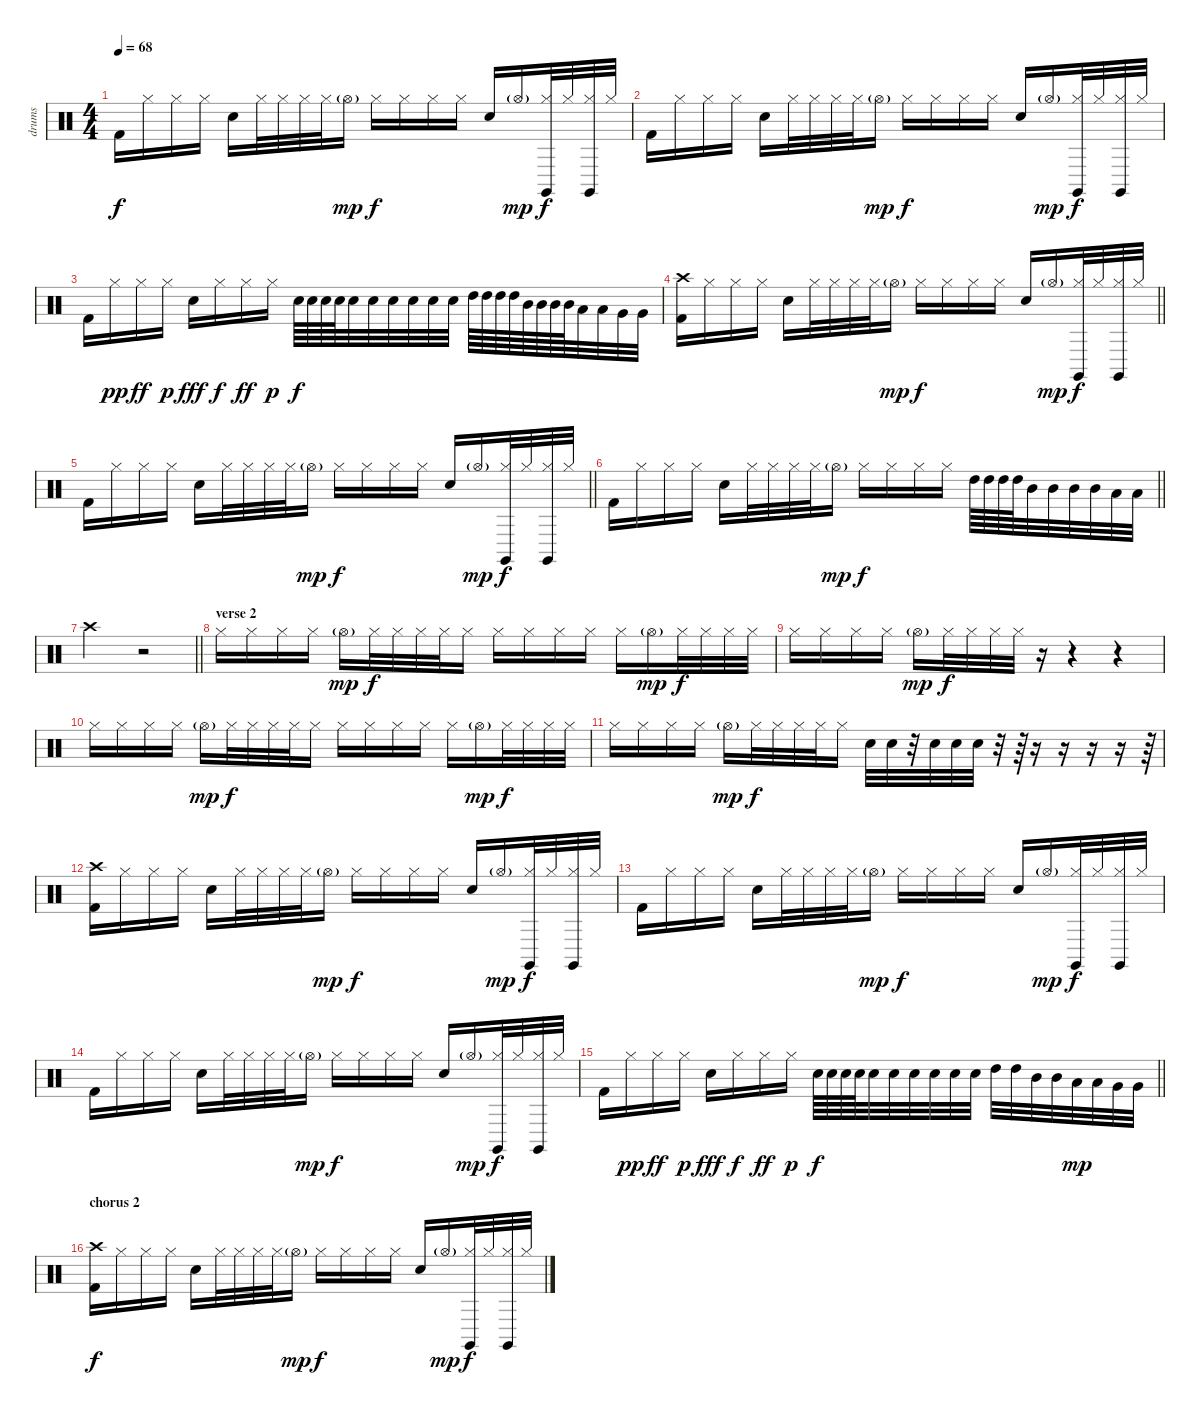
\track ("drums" "drums") {instrument percussion}
\staff {score}
\articulation defaults
\ts (4 4)
\tempo 68
\clef neutral
\ks c "Kick (hit) 2".16{dy f} "Hi-Hat (closed)".16 "Hi-Hat (closed)".16 "Hi-Hat (closed)".16 "Electric Snare (hit)".16 "Hi-Hat (closed)".32 "Hi-Hat (closed)".32 "Hi-Hat (closed)".32 "Hi-Hat (closed)".32 "Hi-Hat (open)"{g}.16{dy mp} "Hi-Hat (closed)".16{dy f} "Hi-Hat (closed)".16 "Hi-Hat (closed)".16 "Hi-Hat (closed)".16 "Electric Snare (hit)".16 "Hi-Hat (open)"{g}.16{dy mp}
("Hi-Hat (closed)" "Claves (hit)").32{dy f} "Hi-Hat (closed)".32 ("Hi-Hat (closed)" "Claves (hit)").32 "Hi-Hat (closed)".32 |
"Kick (hit) 2".16 "Hi-Hat (closed)".16 "Hi-Hat (closed)".16 "Hi-Hat (closed)".16 "Electric Snare (hit)".16 "Hi-Hat (closed)".32 "Hi-Hat (closed)".32 "Hi-Hat (closed)".32 "Hi-Hat (closed)".32 "Hi-Hat (open)"{g}.16{dy mp} "Hi-Hat (closed)".16{dy f} "Hi-Hat (closed)".16 "Hi-Hat (closed)".16 "Hi-Hat (closed)".16 "Electric Snare (hit)".16 "Hi-Hat (open)"{g}.16{dy mp} ("Hi-Hat (closed)" "Claves (hit)").32{dy f} "Hi-Hat (closed)".32 ("Hi-Hat (closed)" "Claves (hit)").32 "Hi-Hat (closed)".32 |
"Kick (hit) 2".16 "Hi-Hat (closed)".16{dy pp} "Hi-Hat (closed)".16{dy ff} "Hi-Hat (closed)".16{dy p} "Electric Snare (hit)".16{dy fff} "Hi-Hat (closed)".16{dy f} "Hi-Hat (closed)".16{dy ff} "Hi-Hat (closed)".16{dy p} "Electric Snare (hit)".64{dy f} "Electric Snare (hit)".64 "Electric Snare (hit)".64 "Electric Snare (hit)".64 "Electric Snare (hit)".32 "Electric Snare (hit)".32 "Electric Snare (hit)".32 "Electric Snare (hit)".32 "Electric Snare (hit)".32 "Electric Snare (hit)".32 "High Tom (hit)".64 "High Tom (hit)".64 "High Tom (hit)".64 "High Tom (hit)".64 "Mid Tom (hit)".64 "Mid Tom (hit)".64 "Mid Tom (hit)".64 "Mid Tom (hit)".64 "Low Tom (hit)".32 "Low Tom (hit)".32 "Very Low Tom (hit)".32 "Very Low Tom (hit)".32 |
\barLineRight lightlight
("Kick (hit) 2" "Crash high (hit)").16 "Hi-Hat (closed)".16 "Hi-Hat (closed)".16 "Hi-Hat (closed)".16 "Electric Snare (hit)".16 "Hi-Hat (closed)".32 "Hi-Hat (closed)".32 "Hi-Hat (closed)".32 "Hi-Hat (closed)".32 "Hi-Hat (open)"{g}.16{dy mp} "Hi-Hat (closed)".16{dy f} "Hi-Hat (closed)".16 "Hi-Hat (closed)".16 "Hi-Hat (closed)".16 "Electric Snare (hit)".16 "Hi-Hat (open)"{g}.16{dy mp} ("Hi-Hat (closed)" "Claves (hit)").32{dy f} "Hi-Hat (closed)".32 ("Hi-Hat (closed)" "Claves (hit)").32 "Hi-Hat (closed)".32 |
\barLineRight lightlight "Kick (hit) 2".16 "Hi-Hat (closed)".16 "Hi-Hat (closed)".16 "Hi-Hat (closed)".16 "Electric Snare (hit)".16 "Hi-Hat (closed)".32 "Hi-Hat (closed)".32 "Hi-Hat (closed)".32 "Hi-Hat (closed)".32 "Hi-Hat (open)"{g}.16{dy mp} "Hi-Hat (closed)".16{dy f} "Hi-Hat (closed)".16 "Hi-Hat (closed)".16 "Hi-Hat (closed)".16 "Electric Snare (hit)".16 "Hi-Hat (open)"{g}.16{dy mp}
("Hi-Hat (closed)" "Claves (hit)").32{dy f} "Hi-Hat (closed)".32 ("Hi-Hat (closed)" "Claves (hit)").32 "Hi-Hat (closed)".32 |
\barLineRight lightlight "Kick (hit) 2".16 "Hi-Hat (closed)".16 "Hi-Hat (closed)".16 "Hi-Hat (closed)".16 "Electric Snare (hit)".16 "Hi-Hat (closed)".32 "Hi-Hat (closed)".32 "Hi-Hat (closed)".32 "Hi-Hat (closed)".32 "Hi-Hat (open)"{g}.16{dy mp} "Hi-Hat (closed)".16{dy f} "Hi-Hat (closed)".16 "Hi-Hat (closed)".16 "Hi-Hat (closed)".16 "High Tom (hit)".64 "High Tom (hit)".64 "High Tom (hit)".64 "High Tom (hit)".64 "Mid Tom (hit)".32 "Mid Tom (hit)".32 "Mid Tom (hit)".32 "Mid Tom (hit)".32 "Low Tom (hit)".32 "Low Tom (hit)".32
|
\barLineRight lightlight "Crash high (hit)".2
r.2 |
\section ("" "verse 2")
"Hi-Hat (closed)".16 "Hi-Hat (closed)".16 "Hi-Hat (closed)".16 "Hi-Hat (closed)".16 "Hi-Hat (open)"{g}.16{dy mp} "Hi-Hat (closed)".32{dy f} "Hi-Hat (closed)".32 "Hi-Hat (closed)".32 "Hi-Hat (closed)".32 "Hi-Hat (closed)".16 "Hi-Hat (closed)".16 "Hi-Hat (closed)".16 "Hi-Hat (closed)".16 "Hi-Hat (closed)".16 "Hi-Hat (closed)".16 "Hi-Hat (open)"{g}.16{dy mp} "Hi-Hat (closed)".32{dy f} "Hi-Hat (closed)".32 "Hi-Hat (closed)".32 "Hi-Hat (closed)".32 |
"Hi-Hat (closed)".16 "Hi-Hat (closed)".16 "Hi-Hat (closed)".16 "Hi-Hat (closed)".16 "Hi-Hat (open)"{g}.16{dy mp} "Hi-Hat (closed)".32{dy f} "Hi-Hat (closed)".32 "Hi-Hat (closed)".32 "Hi-Hat (closed)".32 r.16 r.4 r.4 |
"Hi-Hat (closed)".16 "Hi-Hat (closed)".16 "Hi-Hat (closed)".16 "Hi-Hat (closed)".16 "Hi-Hat (open)"{g}.16{dy mp} "Hi-Hat (closed)".32{dy f} "Hi-Hat (closed)".32 "Hi-Hat (closed)".32 "Hi-Hat (closed)".32 "Hi-Hat (closed)".16 "Hi-Hat (closed)".16 "Hi-Hat (closed)".16 "Hi-Hat (closed)".16 "Hi-Hat (closed)".16 "Hi-Hat (closed)".16 "Hi-Hat (open)"{g}.16{dy mp} "Hi-Hat (closed)".32{dy f} "Hi-Hat (closed)".32 "Hi-Hat (closed)".32 "Hi-Hat (closed)".32 |
"Hi-Hat (closed)".16 "Hi-Hat (closed)".16 "Hi-Hat (closed)".16 "Hi-Hat (closed)".16 "Hi-Hat (open)"{g}.16{dy mp} "Hi-Hat (closed)".32{dy f} "Hi-Hat (closed)".32 "Hi-Hat (closed)".32 "Hi-Hat (closed)".32 "Hi-Hat (closed)".16 "Electric Snare (hit)".32 "Electric Snare (hit)".32 r.32 "Electric Snare (hit)".32 "Electric Snare (hit)".32 "Electric Snare (hit)".32 r.32 r.64 r.16 r.16 r.16 r.16 r.64 |
("Kick (hit) 2" "Crash high (hit)").16 "Hi-Hat (closed)".16 "Hi-Hat (closed)".16 "Hi-Hat (closed)".16 "Electric Snare (hit)".16 "Hi-Hat (closed)".32 "Hi-Hat (closed)".32 "Hi-Hat (closed)".32 "Hi-Hat (closed)".32 "Hi-Hat (open)"{g}.16{dy mp} "Hi-Hat (closed)".16{dy f} "Hi-Hat (closed)".16 "Hi-Hat (closed)".16 "Hi-Hat (closed)".16 "Electric Snare (hit)".16 "Hi-Hat (open)"{g}.16{dy mp} ("Hi-Hat (closed)" "Claves (hit)").32{dy f} "Hi-Hat (closed)".32 ("Hi-Hat (closed)" "Claves (hit)").32 "Hi-Hat (closed)".32 |
"Kick (hit) 2".16 "Hi-Hat (closed)".16 "Hi-Hat (closed)".16 "Hi-Hat (closed)".16 "Electric Snare (hit)".16 "Hi-Hat (closed)".32 "Hi-Hat (closed)".32 "Hi-Hat (closed)".32 "Hi-Hat (closed)".32 "Hi-Hat (open)"{g}.16{dy mp} "Hi-Hat (closed)".16{dy f} "Hi-Hat (closed)".16 "Hi-Hat (closed)".16 "Hi-Hat (closed)".16 "Electric Snare (hit)".16 "Hi-Hat (open)"{g}.16{dy mp} ("Hi-Hat (closed)" "Claves (hit)").32{dy f} "Hi-Hat (closed)".32 ("Hi-Hat (closed)" "Claves (hit)").32 "Hi-Hat (closed)".32 |
"Kick (hit) 2".16 "Hi-Hat (closed)".16 "Hi-Hat (closed)".16 "Hi-Hat (closed)".16 "Electric Snare (hit)".16 "Hi-Hat (closed)".32 "Hi-Hat (closed)".32 "Hi-Hat (closed)".32 "Hi-Hat (closed)".32 "Hi-Hat (open)"{g}.16{dy mp} "Hi-Hat (closed)".16{dy f} "Hi-Hat (closed)".16 "Hi-Hat (closed)".16 "Hi-Hat (closed)".16 "Electric Snare (hit)".16 "Hi-Hat (open)"{g}.16{dy mp} ("Hi-Hat (closed)" "Claves (hit)").32{dy f} "Hi-Hat (closed)".32 ("Hi-Hat (closed)" "Claves (hit)").32 "Hi-Hat (closed)".32 |
\barLineRight lightlight "Kick (hit) 2".16 "Hi-Hat (closed)".16{dy pp} "Hi-Hat (closed)".16{dy ff} "Hi-Hat (closed)".16{dy p} "Electric Snare (hit)".16{dy fff} "Hi-Hat (closed)".16{dy f} "Hi-Hat (closed)".16{dy ff} "Hi-Hat (closed)".16{dy p} "Electric Snare (hit)".64{dy f} "Electric Snare (hit)".64 "Electric Snare (hit)".64 "Electric Snare (hit)".64 "Electric Snare (hit)".32 "Electric Snare (hit)".32 "Electric Snare (hit)".32 "Electric Snare (hit)".32 "Electric Snare (hit)".32 "Electric Snare (hit)".32 "High Tom (hit)".32 "High Tom (hit)".32 "Mid Tom (hit)".32 "Mid Tom (hit)".32 "Low Tom (hit)".32{dy mp} "Low Tom (hit)".32 "Very Low Tom (hit)".32 "Very Low Tom (hit)".32
|
\section ("" "chorus 2")
("Kick (hit) 2" "Crash high (hit)").16{dy f} "Hi-Hat (closed)".16 "Hi-Hat (closed)".16 "Hi-Hat (closed)".16 "Electric Snare (hit)".16 "Hi-Hat (closed)".32 "Hi-Hat (closed)".32 "Hi-Hat (closed)".32 "Hi-Hat (closed)".32 "Hi-Hat (open)"{g}.16{dy mp} "Hi-Hat (closed)".16{dy f} "Hi-Hat (closed)".16 "Hi-Hat (closed)".16 "Hi-Hat (closed)".16 "Electric Snare (hit)".16 "Hi-Hat (open)"{g}.16{dy mp} ("Hi-Hat (closed)" "Claves (hit)").32{dy f} "Hi-Hat (closed)".32 ("Hi-Hat (closed)" "Claves (hit)").32 "Hi-Hat (closed)".32
